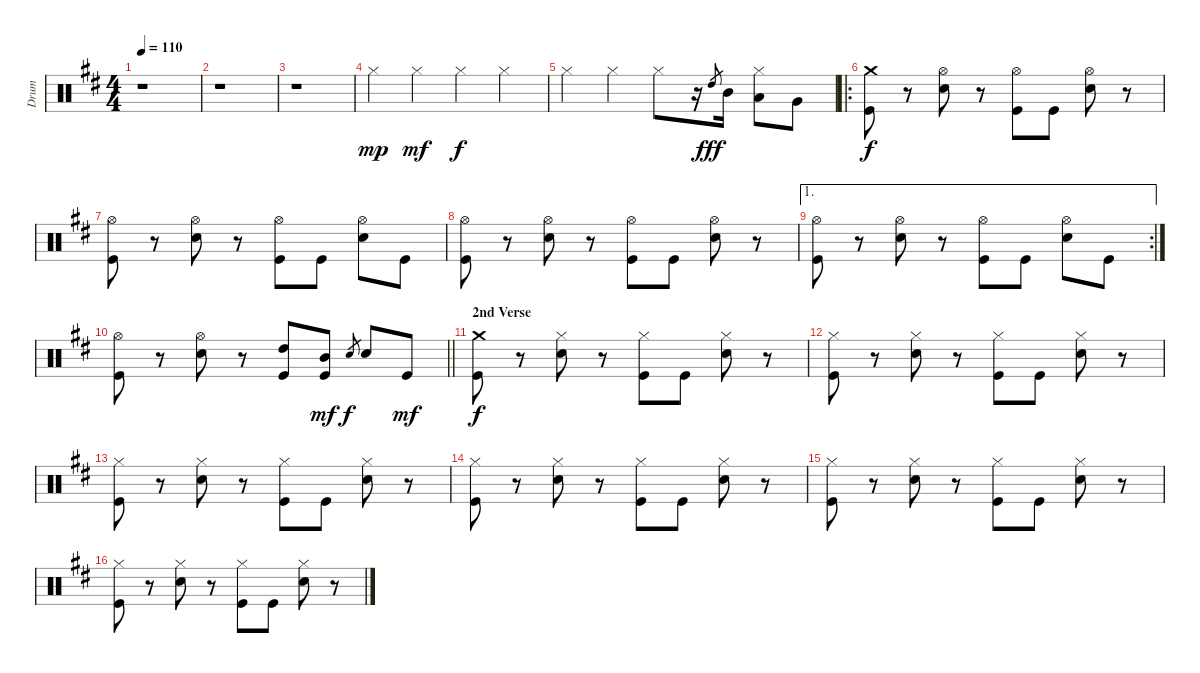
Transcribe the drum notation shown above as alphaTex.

\track ("Drum" "Drum") {instrument percussion}
\staff {score}
\articulation defaults
\ts (4 4)
\tempo 110
\clef neutral
\ks d
r.1{dy mp} |
r.1 |
r.1 |
"Hi-Hat (closed)".4 "Hi-Hat (closed)".4{dy mf} "Hi-Hat (closed)".4{dy f} "Hi-Hat (closed)".4 |
"Hi-Hat (closed)".4 "Hi-Hat (closed)".4 "Hi-Hat (closed)".8 r.16 "High Tom (hit)".8{gr dy fff} "Mid Tom (hit)".16 ("Hi-Hat (closed)" "Low Tom (hit)").8 "Very Low Tom (hit)".8 |
\ro
("Crash medium (hit)" "Kick (hit)").8{dy f} r.8 ("Hi-Hat (open)" "Electric Snare (hit)").8 r.8 ("Hi-Hat (open)" "Kick (hit)").8 "Kick (hit)".8 ("Hi-Hat (open)" "Electric Snare (hit)").8 r.8 |
("Hi-Hat (open)" "Kick (hit)").8 r.8 ("Hi-Hat (open)" "Electric Snare (hit)").8 r.8 ("Hi-Hat (open)" "Kick (hit)").8 "Kick (hit)".8 ("Hi-Hat (open)" "Electric Snare (hit)").8 "Kick (hit)".8 |
("Hi-Hat (open)" "Kick (hit)").8 r.8 ("Hi-Hat (open)" "Electric Snare (hit)").8 r.8 ("Hi-Hat (open)" "Kick (hit)").8 "Kick (hit)".8 ("Hi-Hat (open)" "Electric Snare (hit)").8 r.8 |
\ae 1
\rc 2
("Hi-Hat (open)" "Kick (hit)").8 r.8 ("Hi-Hat (open)" "Electric Snare (hit)").8 r.8 ("Hi-Hat (open)" "Kick (hit)").8 "Kick (hit)".8 ("Hi-Hat (open)" "Electric Snare (hit)").8 "Kick (hit)".8 |
\barLineRight lightlight
("Hi-Hat (open)" "Kick (hit)").8 r.8 ("Hi-Hat (open)" "Electric Snare (hit)").8 r.8 ("High Tom (hit)" "Kick (hit)").8 ("Mid Tom (hit)" "Kick (hit)").8{dy mf} "Electric Snare (hit)".8{gr dy f} "Electric Snare (hit)".8 "Kick (hit)".8{dy mf} |
\section ("" "2nd Verse")
("Crash medium (hit)" "Kick (hit)").8{dy f} r.8 ("Hi-Hat (closed)" "Electric Snare (hit)").8 r.8 ("Hi-Hat (closed)" "Kick (hit)").8 "Kick (hit)".8 ("Hi-Hat (closed)" "Electric Snare (hit)").8 r.8 |
("Hi-Hat (closed)" "Kick (hit)").8 r.8 ("Hi-Hat (closed)" "Electric Snare (hit)").8 r.8 ("Hi-Hat (closed)" "Kick (hit)").8 "Kick (hit)".8 ("Hi-Hat (closed)" "Electric Snare (hit)").8 r.8 |
("Hi-Hat (closed)" "Kick (hit)").8 r.8 ("Hi-Hat (closed)" "Electric Snare (hit)").8 r.8 ("Hi-Hat (closed)" "Kick (hit)").8 "Kick (hit)".8 ("Hi-Hat (closed)" "Electric Snare (hit)").8 r.8 |
("Hi-Hat (closed)" "Kick (hit)").8 r.8 ("Hi-Hat (closed)" "Electric Snare (hit)").8 r.8 ("Hi-Hat (closed)" "Kick (hit)").8 "Kick (hit)".8 ("Hi-Hat (closed)" "Electric Snare (hit)").8 r.8 |
("Hi-Hat (closed)" "Kick (hit)").8 r.8 ("Hi-Hat (closed)" "Electric Snare (hit)").8 r.8 ("Hi-Hat (closed)" "Kick (hit)").8 "Kick (hit)".8 ("Hi-Hat (closed)" "Electric Snare (hit)").8 r.8 |
("Hi-Hat (closed)" "Kick (hit)").8 r.8 ("Hi-Hat (closed)" "Electric Snare (hit)").8 r.8 ("Hi-Hat (closed)" "Kick (hit)").8 "Kick (hit)".8 ("Hi-Hat (closed)" "Electric Snare (hit)").8 r.8
